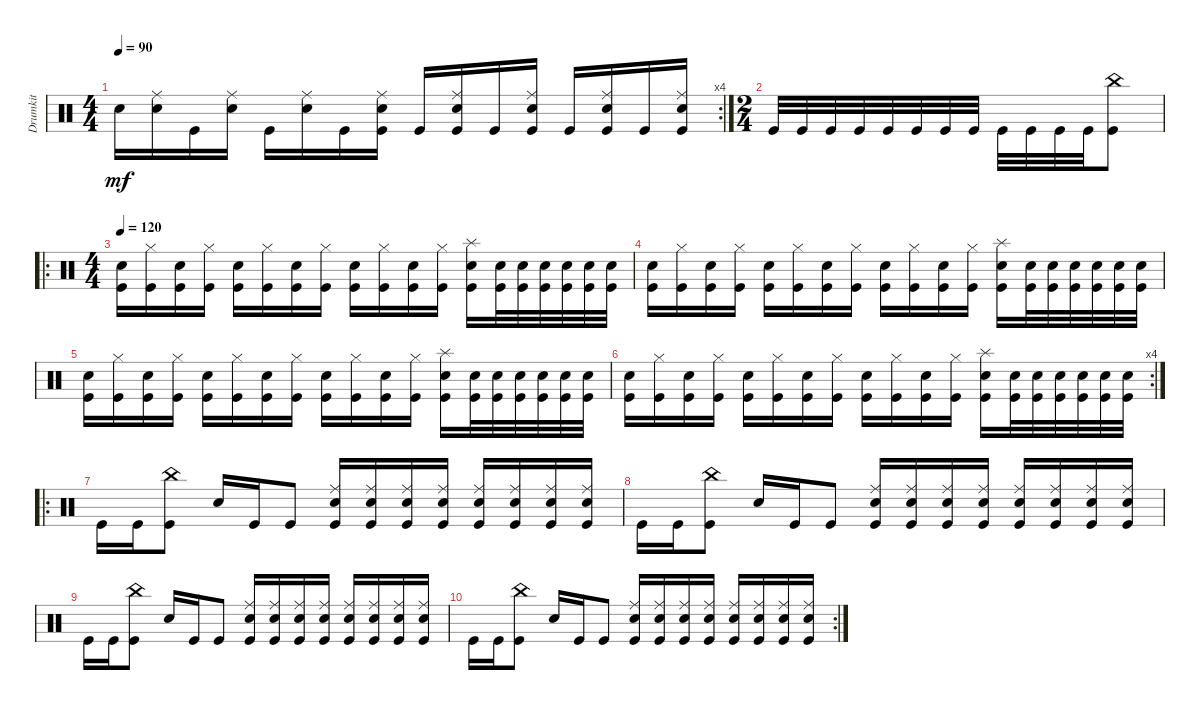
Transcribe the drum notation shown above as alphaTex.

\track ("Drumkit" "Drumkit") {instrument percussion}
\staff {score}
\articulation defaults
\rc 4
\ts (4 4)
\tempo 90
\clef neutral
\ks c "Snare (hit) 2".16{dy mf}
("Snare (hit) 2" "Ride (middle)").16 "Kick (hit)".16 ("Snare (hit) 2" "Ride (middle)").16 "Kick (hit)".16 ("Snare (hit) 2" "Ride (middle)").16 "Kick (hit)".16 ("Kick (hit)" "Snare (hit) 2" "Ride (middle)").16 "Kick (hit)".16 ("Kick (hit)" "Snare (hit) 2" "Ride (middle)").16 "Kick (hit)".16 ("Kick (hit)" "Snare (hit) 2" "Ride (middle)").16 "Kick (hit)".16 ("Kick (hit)" "Snare (hit) 2" "Ride (middle)").16 "Kick (hit)".16 ("Kick (hit)" "Snare (hit) 2" "Ride (middle)").16 |
\ts (2 4)
"Kick (hit)".32 "Kick (hit)".32 "Kick (hit)".32 "Kick (hit)".32 "Kick (hit)".32 "Kick (hit)".32 "Kick (hit)".32 "Kick (hit)".32 "Kick (hit)".32 "Kick (hit)".32 "Kick (hit)".32 "Kick (hit)".32 ("Kick (hit)" "China (hit)").8 |
\ro
\ts (4 4)
\tempo 120
("Kick (hit)" "Snare (hit) 2").16 ("Kick (hit)" "Hi-Hat (closed)").16 ("Kick (hit)" "Snare (hit) 2").16 ("Kick (hit)" "Hi-Hat (closed)").16 ("Kick (hit)" "Snare (hit) 2").16 ("Kick (hit)" "Hi-Hat (closed)").16 ("Kick (hit)" "Snare (hit) 2").16 ("Kick (hit)" "Hi-Hat (closed)").16 ("Kick (hit)" "Snare (hit) 2").16 ("Kick (hit)" "Hi-Hat (closed)").16 ("Kick (hit)" "Snare (hit) 2").16 ("Kick (hit)" "Hi-Hat (closed)").16 ("Kick (hit)" "Snare (hit) 2" "Splash (hit)").16 ("Kick (hit)" "Snare (hit) 2").32 ("Kick (hit)" "Snare (hit) 2").32 ("Kick (hit)" "Snare (hit) 2").32 ("Kick (hit)" "Snare (hit) 2").32 ("Kick (hit)" "Snare (hit) 2").32 ("Kick (hit)" "Snare (hit) 2").32 |
("Kick (hit)" "Snare (hit) 2").16 ("Kick (hit)" "Hi-Hat (closed)").16 ("Kick (hit)" "Snare (hit) 2").16 ("Kick (hit)" "Hi-Hat (closed)").16 ("Kick (hit)" "Snare (hit) 2").16 ("Kick (hit)" "Hi-Hat (closed)").16 ("Kick (hit)" "Snare (hit) 2").16 ("Kick (hit)" "Hi-Hat (closed)").16 ("Kick (hit)" "Snare (hit) 2").16 ("Kick (hit)" "Hi-Hat (closed)").16 ("Kick (hit)" "Snare (hit) 2").16 ("Kick (hit)" "Hi-Hat (closed)").16 ("Kick (hit)" "Snare (hit) 2" "Splash (hit)").16 ("Kick (hit)" "Snare (hit) 2").32 ("Kick (hit)" "Snare (hit) 2").32 ("Kick (hit)" "Snare (hit) 2").32 ("Kick (hit)" "Snare (hit) 2").32 ("Kick (hit)" "Snare (hit) 2").32 ("Kick (hit)" "Snare (hit) 2").32 |
("Kick (hit)" "Snare (hit) 2").16 ("Kick (hit)" "Hi-Hat (closed)").16 ("Kick (hit)" "Snare (hit) 2").16 ("Kick (hit)" "Hi-Hat (closed)").16 ("Kick (hit)" "Snare (hit) 2").16 ("Kick (hit)" "Hi-Hat (closed)").16 ("Kick (hit)" "Snare (hit) 2").16 ("Kick (hit)" "Hi-Hat (closed)").16 ("Kick (hit)" "Snare (hit) 2").16 ("Kick (hit)" "Hi-Hat (closed)").16 ("Kick (hit)" "Snare (hit) 2").16 ("Kick (hit)" "Hi-Hat (closed)").16 ("Kick (hit)" "Snare (hit) 2" "Splash (hit)").16 ("Kick (hit)" "Snare (hit) 2").32 ("Kick (hit)" "Snare (hit) 2").32 ("Kick (hit)" "Snare (hit) 2").32 ("Kick (hit)" "Snare (hit) 2").32 ("Kick (hit)" "Snare (hit) 2").32 ("Kick (hit)" "Snare (hit) 2").32 |
\rc 4
("Kick (hit)" "Snare (hit) 2").16 ("Kick (hit)" "Hi-Hat (closed)").16 ("Kick (hit)" "Snare (hit) 2").16 ("Kick (hit)" "Hi-Hat (closed)").16 ("Kick (hit)" "Snare (hit) 2").16 ("Kick (hit)" "Hi-Hat (closed)").16 ("Kick (hit)" "Snare (hit) 2").16 ("Kick (hit)" "Hi-Hat (closed)").16 ("Kick (hit)" "Snare (hit) 2").16 ("Kick (hit)" "Hi-Hat (closed)").16 ("Kick (hit)" "Snare (hit) 2").16 ("Kick (hit)" "Hi-Hat (closed)").16 ("Kick (hit)" "Snare (hit) 2" "Splash (hit)").16 ("Kick (hit)" "Snare (hit) 2").32 ("Kick (hit)" "Snare (hit) 2").32 ("Kick (hit)" "Snare (hit) 2").32 ("Kick (hit)" "Snare (hit) 2").32 ("Kick (hit)" "Snare (hit) 2").32 ("Kick (hit)" "Snare (hit) 2").32 |
\ro "Kick (hit)".16 "Kick (hit)".16
("Kick (hit)" "China (hit)").8 "Snare (hit) 2".16 "Kick (hit)".16 "Kick (hit)".8 ("Kick (hit)" "Snare (hit) 2" "Ride (middle)").16 ("Kick (hit)" "Snare (hit) 2" "Ride (middle)").16 ("Kick (hit)" "Snare (hit) 2" "Ride (middle)").16 ("Kick (hit)" "Snare (hit) 2" "Ride (middle)").16 ("Kick (hit)" "Snare (hit) 2" "Ride (middle)").16 ("Kick (hit)" "Snare (hit) 2" "Ride (middle)").16 ("Kick (hit)" "Snare (hit) 2" "Ride (middle)").16 ("Kick (hit)" "Snare (hit) 2" "Ride (middle)").16 |
"Kick (hit)".16 "Kick (hit)".16 ("Kick (hit)" "China (hit)").8 "Snare (hit) 2".16 "Kick (hit)".16 "Kick (hit)".8 ("Kick (hit)" "Snare (hit) 2" "Ride (middle)").16 ("Kick (hit)" "Snare (hit) 2" "Ride (middle)").16 ("Kick (hit)" "Snare (hit) 2" "Ride (middle)").16 ("Kick (hit)" "Snare (hit) 2" "Ride (middle)").16 ("Kick (hit)" "Snare (hit) 2" "Ride (middle)").16 ("Kick (hit)" "Snare (hit) 2" "Ride (middle)").16 ("Kick (hit)" "Snare (hit) 2" "Ride (middle)").16 ("Kick (hit)" "Snare (hit) 2" "Ride (middle)").16 |
"Kick (hit)".16 "Kick (hit)".16 ("Kick (hit)" "China (hit)").8 "Snare (hit) 2".16 "Kick (hit)".16 "Kick (hit)".8 ("Kick (hit)" "Snare (hit) 2" "Ride (middle)").16 ("Kick (hit)" "Snare (hit) 2" "Ride (middle)").16 ("Kick (hit)" "Snare (hit) 2" "Ride (middle)").16 ("Kick (hit)" "Snare (hit) 2" "Ride (middle)").16 ("Kick (hit)" "Snare (hit) 2" "Ride (middle)").16 ("Kick (hit)" "Snare (hit) 2" "Ride (middle)").16 ("Kick (hit)" "Snare (hit) 2" "Ride (middle)").16 ("Kick (hit)" "Snare (hit) 2" "Ride (middle)").16 |
\rc 2 "Kick (hit)".16 "Kick (hit)".16
("Kick (hit)" "China (hit)").8 "Snare (hit) 2".16 "Kick (hit)".16 "Kick (hit)".8 ("Kick (hit)" "Snare (hit) 2" "Ride (middle)").16 ("Kick (hit)" "Snare (hit) 2" "Ride (middle)").16 ("Kick (hit)" "Snare (hit) 2" "Ride (middle)").16 ("Kick (hit)" "Snare (hit) 2" "Ride (middle)").16 ("Kick (hit)" "Snare (hit) 2" "Ride (middle)").16 ("Kick (hit)" "Snare (hit) 2" "Ride (middle)").16 ("Kick (hit)" "Snare (hit) 2" "Ride (middle)").16 ("Kick (hit)" "Snare (hit) 2" "Ride (middle)").16
